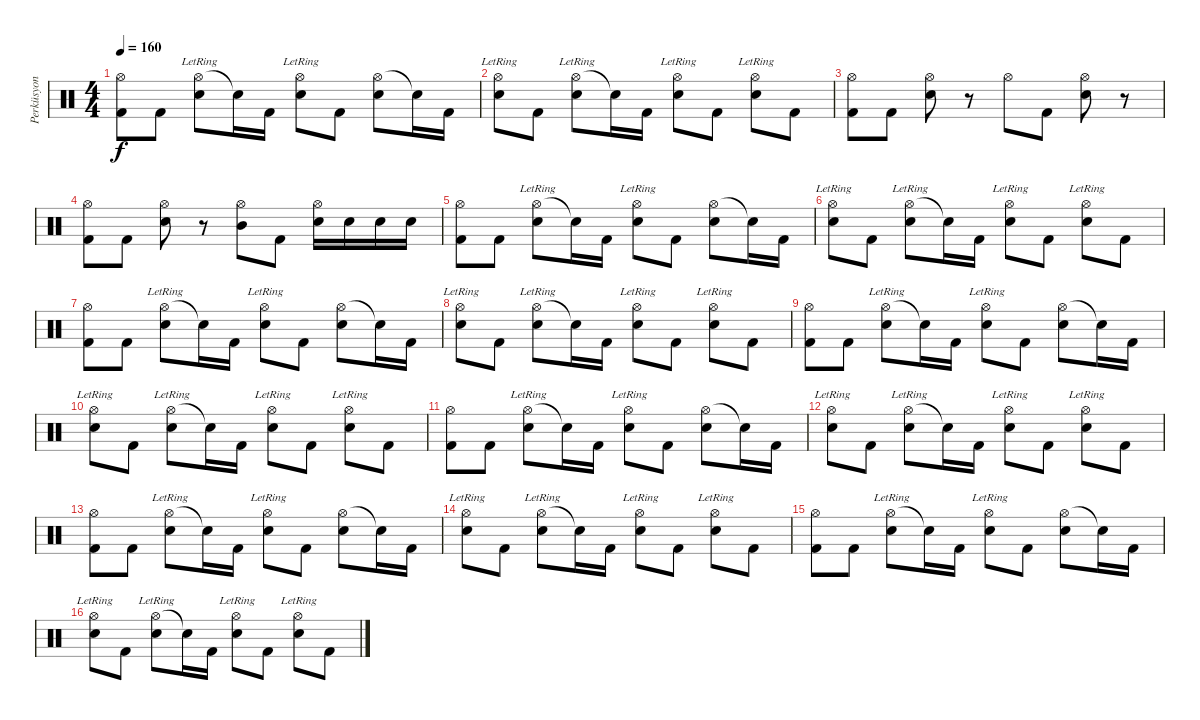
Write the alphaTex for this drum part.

\track ("Perküsyon" "Perküsyon") {instrument percussion}
\staff {score}
\articulation defaults
\ts (4 4)
\tempo 160
\clef neutral
\ks c
("Hi-Hat (open)" "Kick (hit) 2").8{dy f} "Kick (hit) 2".8 ("Hi-Hat (open)" "Electric Snare (hit)"{lr}).8 "Snare (hit)"{t}.16 "Kick (hit) 2".16 ("Hi-Hat (open)" "Electric Snare (hit)"{lr}).8 "Kick (hit) 2".8 ("Hi-Hat (open)" "Electric Snare (hit)").8 "Snare (hit)"{t}.16 "Kick (hit) 2".16 |
("Hi-Hat (open)" "Electric Snare (hit)"{lr}).8 "Kick (hit) 2".8 ("Hi-Hat (open)" "Electric Snare (hit)"{lr}).8 "Snare (hit)"{t}.16 "Kick (hit) 2".16 ("Hi-Hat (open)" "Electric Snare (hit)"{lr}).8 "Kick (hit) 2".8 ("Hi-Hat (open)" "Electric Snare (hit)"{lr}).8 "Kick (hit) 2".8 |
("Hi-Hat (open)" "Kick (hit) 2").8 "Kick (hit) 2".8 ("Hi-Hat (open)" "Electric Snare (hit)").8 r.8 "Hi-Hat (open)".8 "Kick (hit) 2".8 ("Hi-Hat (open)" "Electric Snare (hit)").8 r.8 |
("Hi-Hat (open)" "Kick (hit) 2").8 "Kick (hit) 2".8 ("Hi-Hat (open)" "Electric Snare (hit)").8 r.8 ("Hi-Hat (open)" "Mid Tom (hit)").8 "Kick (hit) 2".8 ("Hi-Hat (open)" "Electric Snare (hit)").16 "Electric Snare (hit)".16 "Electric Snare (hit)".16 "Electric Snare (hit)".16 |
("Hi-Hat (open)" "Kick (hit) 2").8 "Kick (hit) 2".8 ("Hi-Hat (open)" "Electric Snare (hit)"{lr}).8 "Snare (hit)"{t}.16 "Kick (hit) 2".16 ("Hi-Hat (open)" "Electric Snare (hit)"{lr}).8 "Kick (hit) 2".8 ("Hi-Hat (open)" "Electric Snare (hit)").8 "Snare (hit)"{t}.16 "Kick (hit) 2".16 |
("Hi-Hat (open)" "Electric Snare (hit)"{lr}).8 "Kick (hit) 2".8 ("Hi-Hat (open)" "Electric Snare (hit)"{lr}).8 "Snare (hit)"{t}.16 "Kick (hit) 2".16 ("Hi-Hat (open)" "Electric Snare (hit)"{lr}).8 "Kick (hit) 2".8 ("Hi-Hat (open)" "Electric Snare (hit)"{lr}).8 "Kick (hit) 2".8 |
("Hi-Hat (open)" "Kick (hit) 2").8 "Kick (hit) 2".8 ("Hi-Hat (open)" "Electric Snare (hit)"{lr}).8 "Snare (hit)"{t}.16 "Kick (hit) 2".16 ("Hi-Hat (open)" "Electric Snare (hit)"{lr}).8 "Kick (hit) 2".8 ("Hi-Hat (open)" "Electric Snare (hit)").8 "Snare (hit)"{t}.16 "Kick (hit) 2".16 |
("Hi-Hat (open)" "Electric Snare (hit)"{lr}).8 "Kick (hit) 2".8 ("Hi-Hat (open)" "Electric Snare (hit)"{lr}).8 "Snare (hit)"{t}.16 "Kick (hit) 2".16 ("Hi-Hat (open)" "Electric Snare (hit)"{lr}).8 "Kick (hit) 2".8 ("Hi-Hat (open)" "Electric Snare (hit)"{lr}).8 "Kick (hit) 2".8 |
("Hi-Hat (open)" "Kick (hit) 2").8 "Kick (hit) 2".8 ("Hi-Hat (open)" "Electric Snare (hit)"{lr}).8 "Snare (hit)"{t}.16 "Kick (hit) 2".16 ("Hi-Hat (open)" "Electric Snare (hit)"{lr}).8 "Kick (hit) 2".8 ("Hi-Hat (open)" "Electric Snare (hit)").8 "Snare (hit)"{t}.16 "Kick (hit) 2".16 |
("Hi-Hat (open)" "Electric Snare (hit)"{lr}).8 "Kick (hit) 2".8 ("Hi-Hat (open)" "Electric Snare (hit)"{lr}).8 "Snare (hit)"{t}.16 "Kick (hit) 2".16 ("Hi-Hat (open)" "Electric Snare (hit)"{lr}).8 "Kick (hit) 2".8 ("Hi-Hat (open)" "Electric Snare (hit)"{lr}).8 "Kick (hit) 2".8 |
("Hi-Hat (open)" "Kick (hit) 2").8 "Kick (hit) 2".8 ("Hi-Hat (open)" "Electric Snare (hit)"{lr}).8 "Snare (hit)"{t}.16 "Kick (hit) 2".16 ("Hi-Hat (open)" "Electric Snare (hit)"{lr}).8 "Kick (hit) 2".8 ("Hi-Hat (open)" "Electric Snare (hit)").8 "Snare (hit)"{t}.16 "Kick (hit) 2".16 |
("Hi-Hat (open)" "Electric Snare (hit)"{lr}).8 "Kick (hit) 2".8 ("Hi-Hat (open)" "Electric Snare (hit)"{lr}).8 "Snare (hit)"{t}.16 "Kick (hit) 2".16 ("Hi-Hat (open)" "Electric Snare (hit)"{lr}).8 "Kick (hit) 2".8 ("Hi-Hat (open)" "Electric Snare (hit)"{lr}).8 "Kick (hit) 2".8 |
("Hi-Hat (open)" "Kick (hit) 2").8 "Kick (hit) 2".8 ("Hi-Hat (open)" "Electric Snare (hit)"{lr}).8 "Snare (hit)"{t}.16 "Kick (hit) 2".16 ("Hi-Hat (open)" "Electric Snare (hit)"{lr}).8 "Kick (hit) 2".8 ("Hi-Hat (open)" "Electric Snare (hit)").8 "Snare (hit)"{t}.16 "Kick (hit) 2".16 |
("Hi-Hat (open)" "Electric Snare (hit)"{lr}).8 "Kick (hit) 2".8 ("Hi-Hat (open)" "Electric Snare (hit)"{lr}).8 "Snare (hit)"{t}.16 "Kick (hit) 2".16 ("Hi-Hat (open)" "Electric Snare (hit)"{lr}).8 "Kick (hit) 2".8 ("Hi-Hat (open)" "Electric Snare (hit)"{lr}).8 "Kick (hit) 2".8 |
("Hi-Hat (open)" "Kick (hit) 2").8 "Kick (hit) 2".8 ("Hi-Hat (open)" "Electric Snare (hit)"{lr}).8 "Snare (hit)"{t}.16 "Kick (hit) 2".16 ("Hi-Hat (open)" "Electric Snare (hit)"{lr}).8 "Kick (hit) 2".8 ("Hi-Hat (open)" "Electric Snare (hit)").8 "Snare (hit)"{t}.16 "Kick (hit) 2".16 |
("Hi-Hat (open)" "Electric Snare (hit)"{lr}).8 "Kick (hit) 2".8 ("Hi-Hat (open)" "Electric Snare (hit)"{lr}).8 "Snare (hit)"{t}.16 "Kick (hit) 2".16 ("Hi-Hat (open)" "Electric Snare (hit)"{lr}).8 "Kick (hit) 2".8 ("Hi-Hat (open)" "Electric Snare (hit)"{lr}).8 "Kick (hit) 2".8
